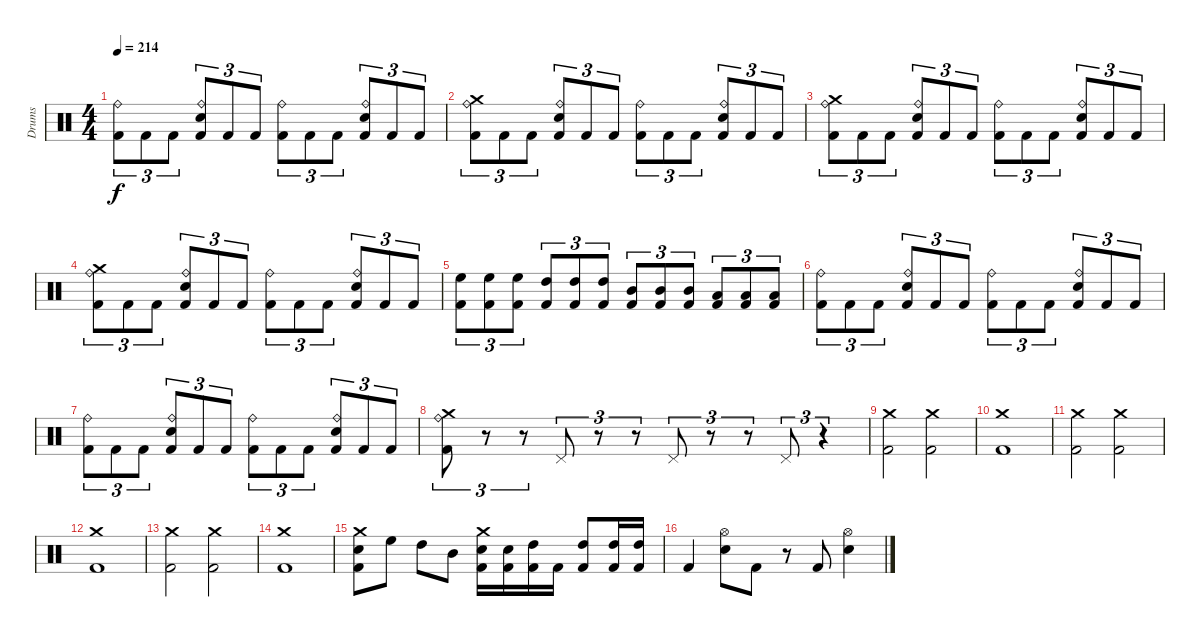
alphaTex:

\track ("Drums" "Drums") {instrument percussion}
\staff {score}
\articulation defaults
\ts (4 4)
\tempo 214
\clef neutral
\ks c
("Kick (hit) 2" "Ride (bell)").8{tu (3 2) dy f} "Kick (hit) 2".8{tu (3 2)} "Kick (hit) 2".8{tu (3 2)} ("Kick (hit) 2" "Ride (bell)" "Snare (hit) 2").8{tu (3 2)} "Kick (hit) 2".8{tu (3 2)} "Kick (hit) 2".8{tu (3 2)} ("Kick (hit) 2" "Ride (bell)").8{tu (3 2)} "Kick (hit) 2".8{tu (3 2)} "Kick (hit) 2".8{tu (3 2)} ("Kick (hit) 2" "Ride (bell)" "Snare (hit) 2").8{tu (3 2)} "Kick (hit) 2".8{tu (3 2)} "Kick (hit) 2".8{tu (3 2)} |
("Kick (hit) 2" "Ride (bell)" "Crash medium (hit)").8{tu (3 2)} "Kick (hit) 2".8{tu (3 2)} "Kick (hit) 2".8{tu (3 2)} ("Kick (hit) 2" "Ride (bell)" "Snare (hit) 2").8{tu (3 2)} "Kick (hit) 2".8{tu (3 2)} "Kick (hit) 2".8{tu (3 2)} ("Kick (hit) 2" "Ride (bell)").8{tu (3 2)} "Kick (hit) 2".8{tu (3 2)} "Kick (hit) 2".8{tu (3 2)} ("Kick (hit) 2" "Ride (bell)" "Snare (hit) 2").8{tu (3 2)} "Kick (hit) 2".8{tu (3 2)} "Kick (hit) 2".8{tu (3 2)} |
("Kick (hit) 2" "Ride (bell)" "Crash medium (hit)").8{tu (3 2)} "Kick (hit) 2".8{tu (3 2)} "Kick (hit) 2".8{tu (3 2)} ("Kick (hit) 2" "Ride (bell)" "Snare (hit) 2").8{tu (3 2)} "Kick (hit) 2".8{tu (3 2)} "Kick (hit) 2".8{tu (3 2)} ("Kick (hit) 2" "Ride (bell)").8{tu (3 2)} "Kick (hit) 2".8{tu (3 2)} "Kick (hit) 2".8{tu (3 2)} ("Kick (hit) 2" "Ride (bell)" "Snare (hit) 2").8{tu (3 2)} "Kick (hit) 2".8{tu (3 2)} "Kick (hit) 2".8{tu (3 2)} |
("Kick (hit) 2" "Ride (bell)" "Crash medium (hit)").8{tu (3 2)} "Kick (hit) 2".8{tu (3 2)} "Kick (hit) 2".8{tu (3 2)} ("Kick (hit) 2" "Ride (bell)" "Snare (hit) 2").8{tu (3 2)} "Kick (hit) 2".8{tu (3 2)} "Kick (hit) 2".8{tu (3 2)} ("Kick (hit) 2" "Ride (bell)").8{tu (3 2)} "Kick (hit) 2".8{tu (3 2)} "Kick (hit) 2".8{tu (3 2)} ("Kick (hit) 2" "Ride (bell)" "Snare (hit) 2").8{tu (3 2)} "Kick (hit) 2".8{tu (3 2)} "Kick (hit) 2".8{tu (3 2)} |
("Kick (hit) 2" "High Floor Tom (hit)").8{tu (3 2)} ("Kick (hit) 2" "High Floor Tom (hit)").8{tu (3 2)} ("Kick (hit) 2" "High Floor Tom (hit)").8{tu (3 2)} ("Kick (hit) 2" "High Tom (hit)").8{tu (3 2)} ("Kick (hit) 2" "High Tom (hit)").8{tu (3 2)} ("Kick (hit) 2" "High Tom (hit)").8{tu (3 2)} ("Kick (hit) 2" "Mid Tom (hit)").8{tu (3 2)} ("Kick (hit) 2" "Mid Tom (hit)").8{tu (3 2)} ("Kick (hit) 2" "Mid Tom (hit)").8{tu (3 2)} ("Kick (hit) 2" "Low Tom (hit)").8{tu (3 2)} ("Kick (hit) 2" "Low Tom (hit)").8{tu (3 2)} ("Kick (hit) 2" "Low Tom (hit)").8{tu (3 2)} |
("Kick (hit) 2" "Ride (bell)").8{tu (3 2)} "Kick (hit) 2".8{tu (3 2)} "Kick (hit) 2".8{tu (3 2)} ("Kick (hit) 2" "Ride (bell)" "Snare (hit) 2").8{tu (3 2)} "Kick (hit) 2".8{tu (3 2)} "Kick (hit) 2".8{tu (3 2)} ("Kick (hit) 2" "Ride (bell)").8{tu (3 2)} "Kick (hit) 2".8{tu (3 2)} "Kick (hit) 2".8{tu (3 2)} ("Kick (hit) 2" "Ride (bell)" "Snare (hit) 2").8{tu (3 2)} "Kick (hit) 2".8{tu (3 2)} "Kick (hit) 2".8{tu (3 2)} |
("Kick (hit) 2" "Ride (bell)").8{tu (3 2)} "Kick (hit) 2".8{tu (3 2)} "Kick (hit) 2".8{tu (3 2)} ("Kick (hit) 2" "Ride (bell)" "Snare (hit) 2").8{tu (3 2)} "Kick (hit) 2".8{tu (3 2)} "Kick (hit) 2".8{tu (3 2)} ("Kick (hit) 2" "Ride (bell)").8{tu (3 2)} "Kick (hit) 2".8{tu (3 2)} "Kick (hit) 2".8{tu (3 2)} ("Kick (hit) 2" "Ride (bell)" "Snare (hit) 2").8{tu (3 2)} "Kick (hit) 2".8{tu (3 2)} "Kick (hit) 2".8{tu (3 2)} |
("Kick (hit) 2" "Ride (bell)" "Crash medium (hit)").8{tu (3 2)} r.8{tu (3 2)} r.8{tu (3 2)} "Pedal Hi-Hat (hit)".8{tu (3 2)} r.8{tu (3 2)} r.8{tu (3 2)} "Pedal Hi-Hat (hit)".8{tu (3 2)} r.8{tu (3 2)} r.8{tu (3 2)} "Pedal Hi-Hat (hit)".8{tu (3 2)} r.4{tu (3 2)} |
("Kick (hit) 2" "Crash medium (hit)").2 ("Kick (hit) 2" "Crash medium (hit)").2 |
("Kick (hit) 2" "Crash medium (hit)").1 |
("Kick (hit) 2" "Crash medium (hit)").2 ("Kick (hit) 2" "Crash medium (hit)").2 |
("Kick (hit) 2" "Crash medium (hit)").1 |
("Kick (hit) 2" "Crash medium (hit)").2 ("Kick (hit) 2" "Crash medium (hit)").2 |
("Kick (hit) 2" "Crash medium (hit)").1 |
("Kick (hit) 2" "Crash medium (hit)" "Snare (hit) 2").8 "High Floor Tom (hit)".8 "High Tom (hit)".8 "Mid Tom (hit)".8 ("Kick (hit) 2" "Crash medium (hit)" "Snare (hit) 2").16 ("Kick (hit) 2" "Snare (hit) 2").16 ("Kick (hit) 2" "High Tom (hit)").16 "Kick (hit) 2".16 ("Kick (hit) 2" "High Tom (hit)").8 ("Kick (hit) 2" "High Tom (hit)").16 ("Kick (hit) 2" "High Tom (hit)").16 |
"Kick (hit) 2".4 ("Snare (hit) 2" "Hi-Hat (open)").8 "Kick (hit) 2".8 r.8 "Kick (hit) 2".8 ("Snare (hit) 2" "Hi-Hat (open)").4
